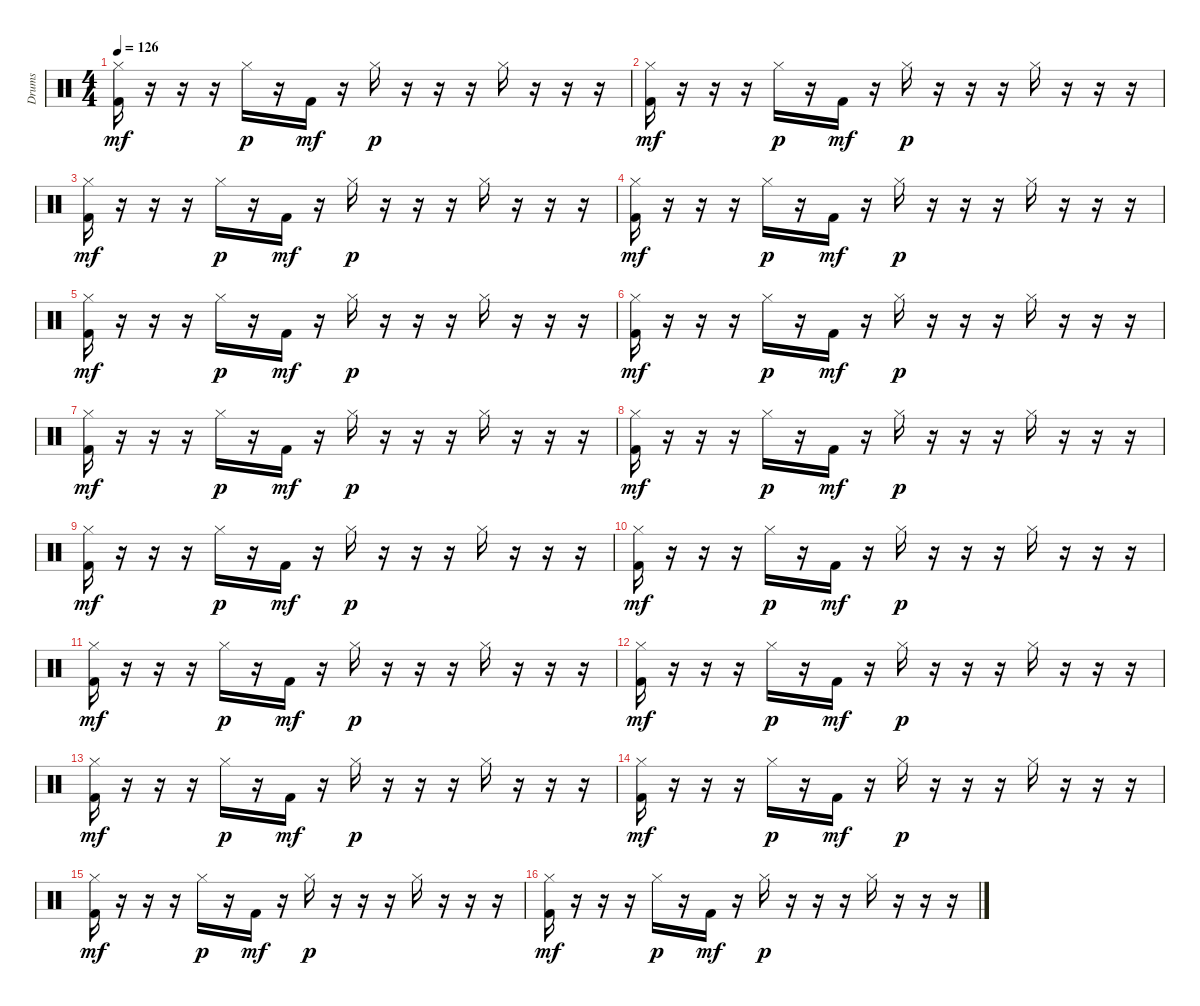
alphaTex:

\track ("Drums" "Drums") {instrument percussion}
\staff {score}
\articulation defaults
\ts (4 4)
\tempo 126
\clef neutral
\ks c
("Hi-Hat (closed)" "Kick (hit) 2").16{dy mf} r.16 r.16 r.16 "Hi-Hat (closed)".16{dy p} r.16 "Kick (hit) 2".16{dy mf} r.16 "Hi-Hat (closed)".16{dy p} r.16 r.16 r.16 "Hi-Hat (closed)".16 r.16 r.16 r.16 |
("Hi-Hat (closed)" "Kick (hit) 2").16{dy mf} r.16 r.16 r.16 "Hi-Hat (closed)".16{dy p} r.16 "Kick (hit) 2".16{dy mf} r.16 "Hi-Hat (closed)".16{dy p} r.16 r.16 r.16 "Hi-Hat (closed)".16 r.16 r.16 r.16 |
("Hi-Hat (closed)" "Kick (hit) 2").16{dy mf} r.16 r.16 r.16 "Hi-Hat (closed)".16{dy p} r.16 "Kick (hit) 2".16{dy mf} r.16 "Hi-Hat (closed)".16{dy p} r.16 r.16 r.16 "Hi-Hat (closed)".16 r.16 r.16 r.16 |
("Hi-Hat (closed)" "Kick (hit) 2").16{dy mf} r.16 r.16 r.16 "Hi-Hat (closed)".16{dy p} r.16 "Kick (hit) 2".16{dy mf} r.16 "Hi-Hat (closed)".16{dy p} r.16 r.16 r.16 "Hi-Hat (closed)".16 r.16 r.16 r.16 |
("Hi-Hat (closed)" "Kick (hit) 2").16{dy mf} r.16 r.16 r.16 "Hi-Hat (closed)".16{dy p} r.16 "Kick (hit) 2".16{dy mf} r.16 "Hi-Hat (closed)".16{dy p} r.16 r.16 r.16 "Hi-Hat (closed)".16 r.16 r.16 r.16 |
("Hi-Hat (closed)" "Kick (hit) 2").16{dy mf} r.16 r.16 r.16 "Hi-Hat (closed)".16{dy p} r.16 "Kick (hit) 2".16{dy mf} r.16 "Hi-Hat (closed)".16{dy p} r.16 r.16 r.16 "Hi-Hat (closed)".16 r.16 r.16 r.16 |
("Hi-Hat (closed)" "Kick (hit) 2").16{dy mf} r.16 r.16 r.16 "Hi-Hat (closed)".16{dy p} r.16 "Kick (hit) 2".16{dy mf} r.16 "Hi-Hat (closed)".16{dy p} r.16 r.16 r.16 "Hi-Hat (closed)".16 r.16 r.16 r.16 |
("Hi-Hat (closed)" "Kick (hit) 2").16{dy mf} r.16 r.16 r.16 "Hi-Hat (closed)".16{dy p} r.16 "Kick (hit) 2".16{dy mf} r.16 "Hi-Hat (closed)".16{dy p} r.16 r.16 r.16 "Hi-Hat (closed)".16 r.16 r.16 r.16 |
("Hi-Hat (closed)" "Kick (hit) 2").16{dy mf} r.16 r.16 r.16 "Hi-Hat (closed)".16{dy p} r.16 "Kick (hit) 2".16{dy mf} r.16 "Hi-Hat (closed)".16{dy p} r.16 r.16 r.16 "Hi-Hat (closed)".16 r.16 r.16 r.16 |
("Hi-Hat (closed)" "Kick (hit) 2").16{dy mf} r.16 r.16 r.16 "Hi-Hat (closed)".16{dy p} r.16 "Kick (hit) 2".16{dy mf} r.16 "Hi-Hat (closed)".16{dy p} r.16 r.16 r.16 "Hi-Hat (closed)".16 r.16 r.16 r.16 |
("Hi-Hat (closed)" "Kick (hit) 2").16{dy mf} r.16 r.16 r.16 "Hi-Hat (closed)".16{dy p} r.16 "Kick (hit) 2".16{dy mf} r.16 "Hi-Hat (closed)".16{dy p} r.16 r.16 r.16 "Hi-Hat (closed)".16 r.16 r.16 r.16 |
("Hi-Hat (closed)" "Kick (hit) 2").16{dy mf} r.16 r.16 r.16 "Hi-Hat (closed)".16{dy p} r.16 "Kick (hit) 2".16{dy mf} r.16 "Hi-Hat (closed)".16{dy p} r.16 r.16 r.16 "Hi-Hat (closed)".16 r.16 r.16 r.16 |
("Hi-Hat (closed)" "Kick (hit) 2").16{dy mf} r.16 r.16 r.16 "Hi-Hat (closed)".16{dy p} r.16 "Kick (hit) 2".16{dy mf} r.16 "Hi-Hat (closed)".16{dy p} r.16 r.16 r.16 "Hi-Hat (closed)".16 r.16 r.16 r.16 |
("Hi-Hat (closed)" "Kick (hit) 2").16{dy mf} r.16 r.16 r.16 "Hi-Hat (closed)".16{dy p} r.16 "Kick (hit) 2".16{dy mf} r.16 "Hi-Hat (closed)".16{dy p} r.16 r.16 r.16 "Hi-Hat (closed)".16 r.16 r.16 r.16 |
("Hi-Hat (closed)" "Kick (hit) 2").16{dy mf} r.16 r.16 r.16 "Hi-Hat (closed)".16{dy p} r.16 "Kick (hit) 2".16{dy mf} r.16 "Hi-Hat (closed)".16{dy p} r.16 r.16 r.16 "Hi-Hat (closed)".16 r.16 r.16 r.16 |
("Hi-Hat (closed)" "Kick (hit) 2").16{dy mf} r.16 r.16 r.16 "Hi-Hat (closed)".16{dy p} r.16 "Kick (hit) 2".16{dy mf} r.16 "Hi-Hat (closed)".16{dy p} r.16 r.16 r.16 "Hi-Hat (closed)".16 r.16 r.16 r.16
